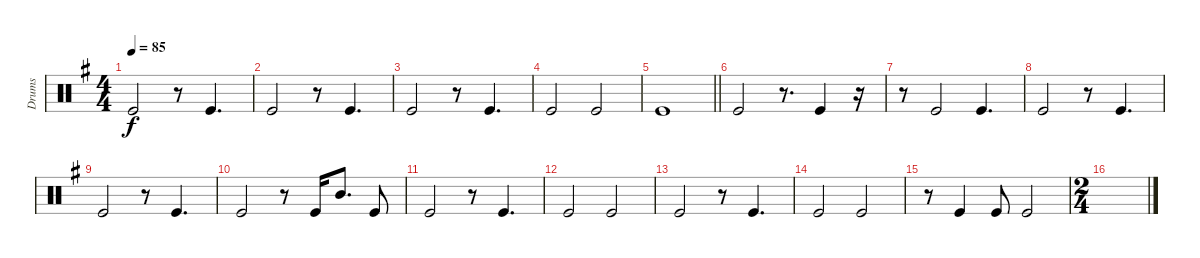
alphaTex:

\track ("Drums" "Drums") {instrument percussion}
\staff {score}
\articulation defaults
\ts (4 4)
\tempo 85
\clef neutral
\ks eminor "Kick (hit)".2{dy f}
r.8 "Kick (hit)".4{d} |
"Kick (hit)".2 r.8 "Kick (hit)".4{d} |
"Kick (hit)".2 r.8 "Kick (hit)".4{d} |
"Kick (hit)".2 "Kick (hit)".2 |
\barLineRight lightlight "Kick (hit)".1
|
"Kick (hit)".2 r.8{d} "Kick (hit)".4 r.16 |
r.8 "Kick (hit)".2 "Kick (hit)".4{d} |
"Kick (hit)".2 r.8 "Kick (hit)".4{d} |
"Kick (hit)".2 r.8 "Kick (hit)".4{d} |
"Kick (hit)".2 r.8 "Kick (hit)".16 "Mid Tom (hit)".8{d} "Kick (hit)".8 |
"Kick (hit)".2 r.8 "Kick (hit)".4{d} |
"Kick (hit)".2 "Kick (hit)".2 |
"Kick (hit)".2 r.8 "Kick (hit)".4{d} |
"Kick (hit)".2 "Kick (hit)".2 |
r.8 "Kick (hit)".4 "Kick (hit)".8 "Kick (hit)".2 |
\ts (2 4)
